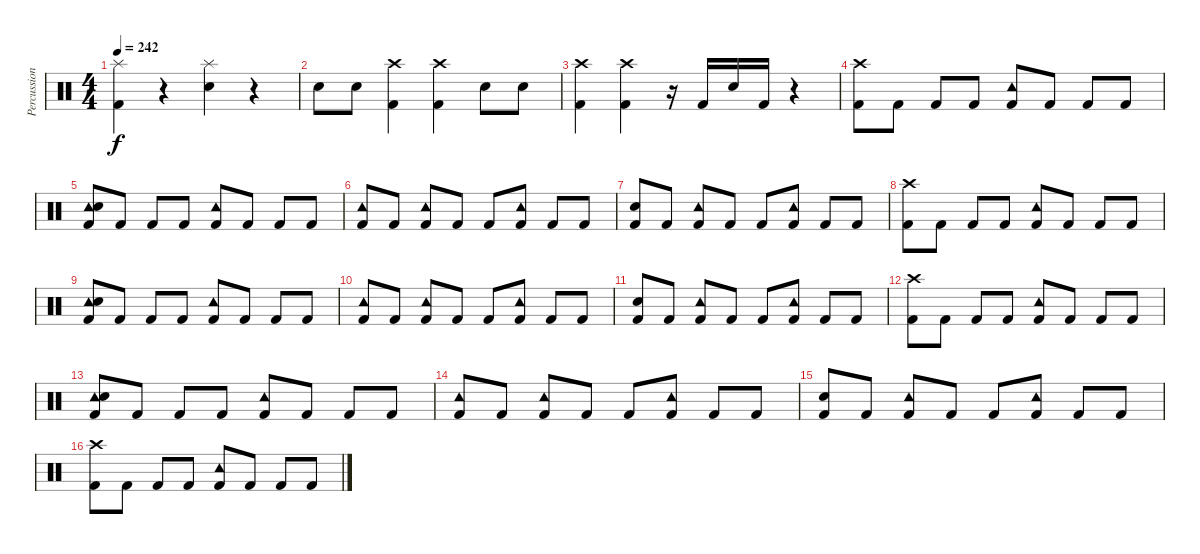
\track ("Percussion" "Percussion") {instrument percussion}
\staff {score}
\articulation defaults
\ts (4 4)
\tempo 242
\clef neutral
\ks c
("Splash (hit)" "Kick (hit) 2").4{dy f} r.4 ("Splash (hit)" "Electric Snare (hit)").4 r.4 |
"Electric Snare (hit)".8 "Electric Snare (hit)".8 ("Crash high (hit)" "Kick (hit) 2").4 ("Crash high (hit)" "Kick (hit) 2").4 "Electric Snare (hit)".8 "Electric Snare (hit)".8 |
("Crash high (hit)" "Kick (hit) 2").4 ("Crash high (hit)" "Kick (hit) 2").4 r.16 "Kick (hit) 2".16 "Electric Snare (hit)".16 "Kick (hit) 2".16 r.4 |
("Crash high (hit)" "Kick (hit) 2").8 "Kick (hit) 2".8 "Kick (hit) 2".8 "Kick (hit) 2".8 ("Tambourine (hit)" "Kick (hit) 2").8 "Kick (hit) 2".8 "Kick (hit) 2".8 "Kick (hit) 2".8 |
("Tambourine (hit)" "Electric Snare (hit)" "Kick (hit) 2").8 "Kick (hit) 2".8 "Kick (hit) 2".8 "Kick (hit) 2".8 ("Tambourine (hit)" "Kick (hit) 2").8 "Kick (hit) 2".8 "Kick (hit) 2".8 "Kick (hit) 2".8 |
("Tambourine (hit)" "Kick (hit) 2").8 "Kick (hit) 2".8 ("Tambourine (hit)" "Kick (hit) 2").8 "Kick (hit) 2".8 "Kick (hit) 2".8 ("Tambourine (hit)" "Kick (hit) 2").8 "Kick (hit) 2".8 "Kick (hit) 2".8 |
("Electric Snare (hit)" "Kick (hit) 2").8 "Kick (hit) 2".8 ("Tambourine (hit)" "Kick (hit) 2").8 "Kick (hit) 2".8 "Kick (hit) 2".8 ("Tambourine (hit)" "Kick (hit) 2").8 "Kick (hit) 2".8 "Kick (hit) 2".8 |
("Crash high (hit)" "Kick (hit) 2").8 "Kick (hit) 2".8 "Kick (hit) 2".8 "Kick (hit) 2".8 ("Tambourine (hit)" "Kick (hit) 2").8 "Kick (hit) 2".8 "Kick (hit) 2".8 "Kick (hit) 2".8 |
("Tambourine (hit)" "Electric Snare (hit)" "Kick (hit) 2").8 "Kick (hit) 2".8 "Kick (hit) 2".8 "Kick (hit) 2".8 ("Tambourine (hit)" "Kick (hit) 2").8 "Kick (hit) 2".8 "Kick (hit) 2".8 "Kick (hit) 2".8 |
("Tambourine (hit)" "Kick (hit) 2").8 "Kick (hit) 2".8 ("Tambourine (hit)" "Kick (hit) 2").8 "Kick (hit) 2".8 "Kick (hit) 2".8 ("Tambourine (hit)" "Kick (hit) 2").8 "Kick (hit) 2".8 "Kick (hit) 2".8 |
("Electric Snare (hit)" "Kick (hit) 2").8 "Kick (hit) 2".8 ("Tambourine (hit)" "Kick (hit) 2").8 "Kick (hit) 2".8 "Kick (hit) 2".8 ("Tambourine (hit)" "Kick (hit) 2").8 "Kick (hit) 2".8 "Kick (hit) 2".8 |
("Crash high (hit)" "Kick (hit) 2").8 "Kick (hit) 2".8 "Kick (hit) 2".8 "Kick (hit) 2".8 ("Tambourine (hit)" "Kick (hit) 2").8 "Kick (hit) 2".8 "Kick (hit) 2".8 "Kick (hit) 2".8 |
("Tambourine (hit)" "Electric Snare (hit)" "Kick (hit) 2").8 "Kick (hit) 2".8 "Kick (hit) 2".8 "Kick (hit) 2".8 ("Tambourine (hit)" "Kick (hit) 2").8 "Kick (hit) 2".8 "Kick (hit) 2".8 "Kick (hit) 2".8 |
("Tambourine (hit)" "Kick (hit) 2").8 "Kick (hit) 2".8 ("Tambourine (hit)" "Kick (hit) 2").8 "Kick (hit) 2".8 "Kick (hit) 2".8 ("Tambourine (hit)" "Kick (hit) 2").8 "Kick (hit) 2".8 "Kick (hit) 2".8 |
("Electric Snare (hit)" "Kick (hit) 2").8 "Kick (hit) 2".8 ("Tambourine (hit)" "Kick (hit) 2").8 "Kick (hit) 2".8 "Kick (hit) 2".8 ("Tambourine (hit)" "Kick (hit) 2").8 "Kick (hit) 2".8 "Kick (hit) 2".8 |
("Crash high (hit)" "Kick (hit) 2").8 "Kick (hit) 2".8 "Kick (hit) 2".8 "Kick (hit) 2".8 ("Tambourine (hit)" "Kick (hit) 2").8 "Kick (hit) 2".8 "Kick (hit) 2".8 "Kick (hit) 2".8
